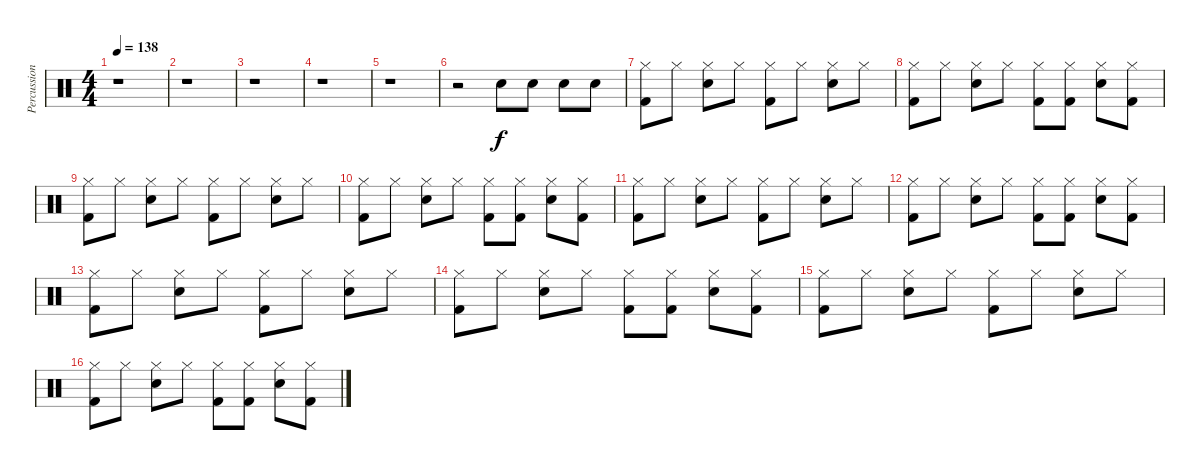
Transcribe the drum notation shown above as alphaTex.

\track ("Percussion" "Percussion") {instrument percussion}
\staff {score}
\articulation defaults
\ts (4 4)
\tempo 138
\clef neutral
\ks c
r.1{dy f} |
r.1 |
r.1 |
r.1 |
r.1 |
r.2 "Snare (hit)".8 "Snare (hit) 2".8 "Snare (hit) 2".8 "Snare (hit) 2".8 |
("Hi-Hat (closed)" "Kick (hit) 2").8 "Hi-Hat (closed)".8 ("Hi-Hat (closed)" "Snare (hit) 2").8 "Hi-Hat (closed)".8 ("Hi-Hat (closed)" "Kick (hit) 2").8 "Hi-Hat (closed)".8 ("Hi-Hat (closed)" "Snare (hit) 2").8 "Hi-Hat (closed)".8 |
("Hi-Hat (closed)" "Kick (hit) 2").8 "Hi-Hat (closed)".8 ("Hi-Hat (closed)" "Snare (hit) 2").8 "Hi-Hat (closed)".8 ("Hi-Hat (closed)" "Kick (hit) 2").8 ("Hi-Hat (closed)" "Kick (hit) 2").8 ("Hi-Hat (closed)" "Snare (hit) 2").8 ("Hi-Hat (closed)" "Kick (hit) 2").8 |
("Hi-Hat (closed)" "Kick (hit) 2").8 "Hi-Hat (closed)".8 ("Hi-Hat (closed)" "Snare (hit) 2").8 "Hi-Hat (closed)".8 ("Hi-Hat (closed)" "Kick (hit) 2").8 "Hi-Hat (closed)".8 ("Hi-Hat (closed)" "Snare (hit) 2").8 "Hi-Hat (closed)".8 |
("Hi-Hat (closed)" "Kick (hit) 2").8 "Hi-Hat (closed)".8 ("Hi-Hat (closed)" "Snare (hit) 2").8 "Hi-Hat (closed)".8 ("Hi-Hat (closed)" "Kick (hit) 2").8 ("Hi-Hat (closed)" "Kick (hit) 2").8 ("Hi-Hat (closed)" "Snare (hit) 2").8 ("Hi-Hat (closed)" "Kick (hit) 2").8 |
("Hi-Hat (closed)" "Kick (hit) 2").8 "Hi-Hat (closed)".8 ("Hi-Hat (closed)" "Snare (hit) 2").8 "Hi-Hat (closed)".8 ("Hi-Hat (closed)" "Kick (hit) 2").8 "Hi-Hat (closed)".8 ("Hi-Hat (closed)" "Snare (hit) 2").8 "Hi-Hat (closed)".8 |
("Hi-Hat (closed)" "Kick (hit) 2").8 "Hi-Hat (closed)".8 ("Hi-Hat (closed)" "Snare (hit) 2").8 "Hi-Hat (closed)".8 ("Hi-Hat (closed)" "Kick (hit) 2").8 ("Hi-Hat (closed)" "Kick (hit) 2").8 ("Hi-Hat (closed)" "Snare (hit) 2").8 ("Hi-Hat (closed)" "Kick (hit) 2").8 |
("Hi-Hat (closed)" "Kick (hit) 2").8 "Hi-Hat (closed)".8 ("Hi-Hat (closed)" "Snare (hit) 2").8 "Hi-Hat (closed)".8 ("Hi-Hat (closed)" "Kick (hit) 2").8 "Hi-Hat (closed)".8 ("Hi-Hat (closed)" "Snare (hit) 2").8 "Hi-Hat (closed)".8 |
("Hi-Hat (closed)" "Kick (hit) 2").8 "Hi-Hat (closed)".8 ("Hi-Hat (closed)" "Snare (hit) 2").8 "Hi-Hat (closed)".8 ("Hi-Hat (closed)" "Kick (hit) 2").8 ("Hi-Hat (closed)" "Kick (hit) 2").8 ("Hi-Hat (closed)" "Snare (hit) 2").8 ("Hi-Hat (closed)" "Kick (hit) 2").8 |
("Hi-Hat (closed)" "Kick (hit) 2").8 "Hi-Hat (closed)".8 ("Hi-Hat (closed)" "Snare (hit) 2").8 "Hi-Hat (closed)".8 ("Hi-Hat (closed)" "Kick (hit) 2").8 "Hi-Hat (closed)".8 ("Hi-Hat (closed)" "Snare (hit) 2").8 "Hi-Hat (closed)".8 |
("Hi-Hat (closed)" "Kick (hit) 2").8 "Hi-Hat (closed)".8 ("Hi-Hat (closed)" "Snare (hit) 2").8 "Hi-Hat (closed)".8 ("Hi-Hat (closed)" "Kick (hit) 2").8 ("Hi-Hat (closed)" "Kick (hit) 2").8 ("Hi-Hat (closed)" "Snare (hit) 2").8 ("Hi-Hat (closed)" "Kick (hit) 2").8
